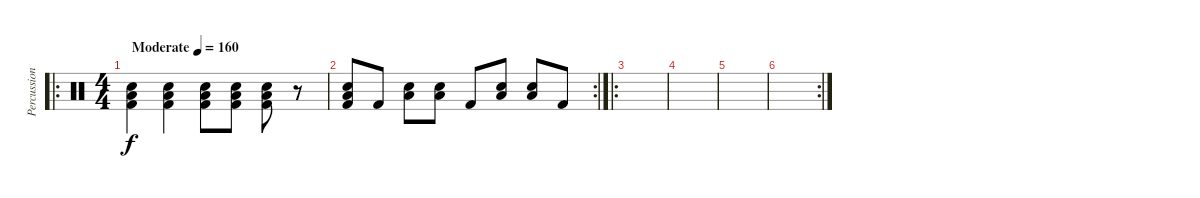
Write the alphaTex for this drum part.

\track ("Percussion" "Percussion") {instrument percussion}
\staff {score}
\articulation defaults
\ro
\ts (4 4)
\tempo (160 "Moderate")
\clef neutral
\ks c
("Snare (hit) 2" "Kick (hit) 2" "Low Tom (hit)").4{dy f} ("Snare (hit) 2" "Kick (hit) 2" "Low Tom (hit)").4 ("Snare (hit) 2" "Kick (hit) 2" "Low Tom (hit)").8 ("Snare (hit) 2" "Kick (hit) 2" "Low Tom (hit)").8 ("Snare (hit) 2" "Kick (hit) 2" "Low Tom (hit)").8 r.8 |
\rc 2
("Snare (hit) 2" "Kick (hit) 2" "Low Tom (hit)").8 "Kick (hit) 2".8 ("Snare (hit) 2" "Low Tom (hit)").8 ("Snare (hit) 2" "Low Tom (hit)").8 "Kick (hit) 2".8 ("Snare (hit) 2" "Low Tom (hit)").8 ("Snare (hit) 2" "Low Tom (hit)").8 "Kick (hit) 2".8 |
\ro
|
|
|
\rc 2
